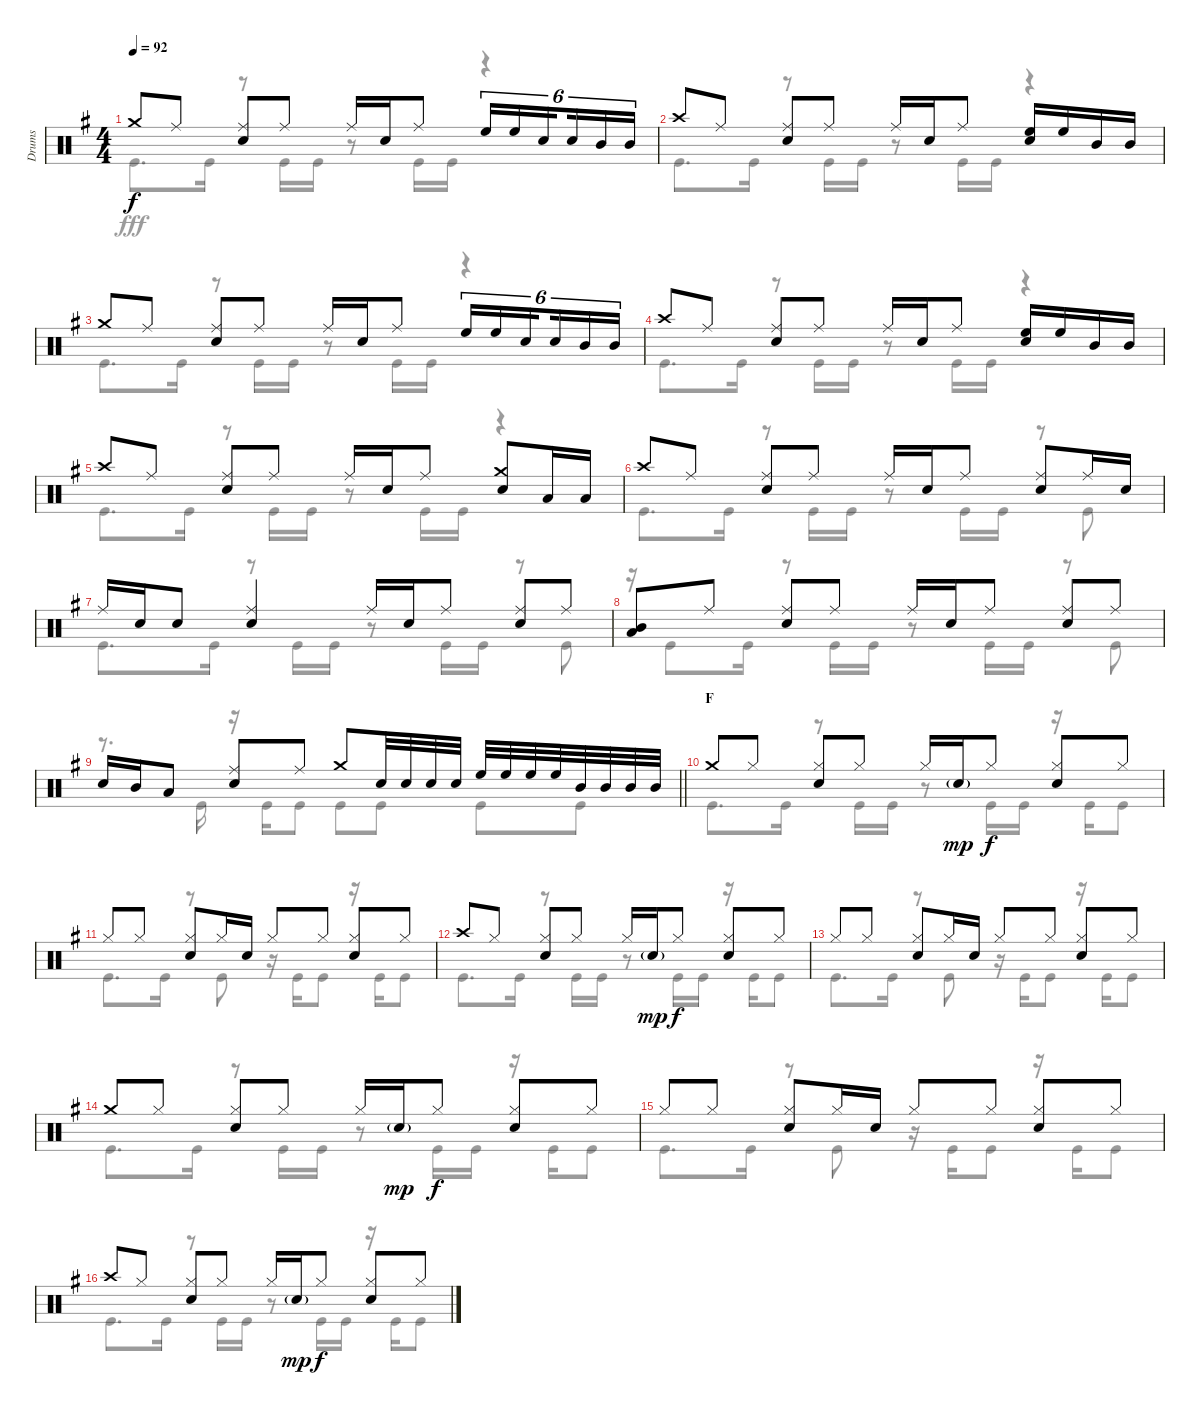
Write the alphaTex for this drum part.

\track ("Drums" "Drums") {instrument percussion}
\staff {score}
\articulation defaults
\voice
\ts (4 4)
\tempo 92
\clef neutral
\ks g "Crash medium (hit)".8{dy f} "Ride (middle)".8
("Snare (hit) 2" "Ride (middle)").8 "Ride (middle)".8 "Ride (middle)".16 "Snare (hit) 2".16 "Ride (middle)".8 "High Floor Tom (hit)".16{tu (6 4)} "High Floor Tom (hit)".16{tu (6 4)} "Snare (hit) 2".16{tu (6 4) beam splitsecondary} "Snare (hit) 2".16{tu (6 4)} "Mid Tom (hit)".16{tu (6 4)} "Mid Tom (hit)".16{tu (6 4)} |
"Crash high (hit)".8 "Ride (middle)".8 ("Ride (middle)" "Snare (hit) 2").8 "Ride (middle)".8 "Ride (middle)".16 "Snare (hit) 2".16 "Ride (middle)".8 ("High Floor Tom (hit)" "Snare (hit) 2").16 "High Floor Tom (hit)".16 "Mid Tom (hit)".16 "Mid Tom (hit)".16 |
"Crash medium (hit)".8 "Ride (middle)".8 ("Snare (hit) 2" "Ride (middle)").8 "Ride (middle)".8 "Ride (middle)".16 "Snare (hit) 2".16 "Ride (middle)".8 "High Floor Tom (hit)".16{tu (6 4)} "High Floor Tom (hit)".16{tu (6 4)} "Snare (hit) 2".16{tu (6 4) beam splitsecondary} "Snare (hit) 2".16{tu (6 4)} "Mid Tom (hit)".16{tu (6 4)} "Mid Tom (hit)".16{tu (6 4)} |
"Crash high (hit)".8 "Ride (middle)".8 ("Snare (hit) 2" "Ride (middle)").8 "Ride (middle)".8 "Ride (middle)".16 "Snare (hit) 2".16 "Ride (middle)".8 ("High Floor Tom (hit)" "Snare (hit) 2").16 "High Floor Tom (hit)".16 "Mid Tom (hit)".16 "Mid Tom (hit)".16 |
"Crash high (hit)".8 "Ride (middle)".8 ("Snare (hit) 2" "Ride (middle)").8 "Ride (middle)".8 "Ride (middle)".16 "Snare (hit) 2".16 "Ride (middle)".8 ("Crash medium (hit)" "Snare (hit) 2").8 "Low Tom (hit)".16 "Low Tom (hit)".16 |
"Crash high (hit)".8 "Ride (middle)".8 ("Ride (middle)" "Snare (hit) 2").8 "Ride (middle)".8 "Ride (middle)".16 "Snare (hit) 2".16 "Ride (middle)".8 ("Ride (middle)" "Snare (hit) 2").8 "Ride (middle)".16 "Snare (hit) 2".16 |
"Ride (middle)".16 "Snare (hit) 2".16 "Snare (hit) 2".8 ("Ride (middle)" "Snare (hit) 2").4 "Ride (middle)".16 "Snare (hit) 2".16 "Ride (middle)".8 ("Ride (middle)" "Snare (hit) 2").8 "Ride (middle)".8 |
("Mid Tom (hit)" "Low Tom (hit)").8 "Ride (middle)".8 ("Ride (middle)" "Snare (hit) 2").8 "Ride (middle)".8 "Ride (middle)".16 "Snare (hit) 2".16 "Ride (middle)".8 ("Ride (middle)" "Snare (hit) 2").8 "Ride (middle)".8 |
\barLineRight lightlight "Snare (hit) 2".16 "Mid Tom (hit)".16 "Low Tom (hit)".8
("Snare (hit) 2" "Ride (middle)").8 "Ride (middle)".8 "Crash medium (hit)".8 "Snare (hit) 2".32 "Snare (hit) 2".32 "Snare (hit) 2".32 "Snare (hit) 2".32 "High Floor Tom (hit)".32 "High Floor Tom (hit)".32 "High Floor Tom (hit)".32 "High Floor Tom (hit)".32 "Mid Tom (hit)".32 "Mid Tom (hit)".32 "Mid Tom (hit)".32 "Mid Tom (hit)".32 |
\section ("" "F")
"Crash medium (hit)".8 "Hi-Hat (closed)".8 ("Hi-Hat (closed)" "Snare (hit) 2").8 "Hi-Hat (closed)".8 "Hi-Hat (closed)".16 "Snare (hit) 2"{g}.16{dy mp} "Hi-Hat (closed)".8{dy f} ("Hi-Hat (closed)" "Snare (hit) 2").8 "Hi-Hat (closed)".8 |
"Hi-Hat (closed)".8 "Hi-Hat (closed)".8 ("Hi-Hat (closed)" "Snare (hit) 2").8 "Hi-Hat (closed)".16 "Snare (hit) 2".16 "Hi-Hat (closed)".8 "Hi-Hat (closed)".8 ("Hi-Hat (closed)" "Snare (hit) 2").8 "Hi-Hat (closed)".8 |
"Crash high (hit)".8 "Hi-Hat (closed)".8 ("Hi-Hat (closed)" "Snare (hit) 2").8 "Hi-Hat (closed)".8 "Hi-Hat (closed)".16 "Snare (hit) 2"{g}.16{dy mp} "Hi-Hat (closed)".8{dy f} ("Hi-Hat (closed)" "Snare (hit) 2").8 "Hi-Hat (closed)".8 |
"Hi-Hat (closed)".8 "Hi-Hat (closed)".8 ("Hi-Hat (closed)" "Snare (hit) 2").8 "Hi-Hat (closed)".16 "Snare (hit) 2".16 "Hi-Hat (closed)".8 "Hi-Hat (closed)".8 ("Hi-Hat (closed)" "Snare (hit) 2").8 "Hi-Hat (closed)".8 |
"Crash medium (hit)".8 "Hi-Hat (closed)".8 ("Hi-Hat (closed)" "Snare (hit) 2").8 "Hi-Hat (closed)".8 "Hi-Hat (closed)".16 "Snare (hit) 2"{g}.16{dy mp} "Hi-Hat (closed)".8{dy f} ("Hi-Hat (closed)" "Snare (hit) 2").8 "Hi-Hat (closed)".8 |
"Hi-Hat (closed)".8 "Hi-Hat (closed)".8 ("Hi-Hat (closed)" "Snare (hit) 2").8 "Hi-Hat (closed)".16 "Snare (hit) 2".16 "Hi-Hat (closed)".8 "Hi-Hat (closed)".8 ("Hi-Hat (closed)" "Snare (hit) 2").8 "Hi-Hat (closed)".8 |
"Crash high (hit)".8 "Hi-Hat (closed)".8 ("Hi-Hat (closed)" "Snare (hit) 2").8 "Hi-Hat (closed)".8 "Hi-Hat (closed)".16 "Snare (hit) 2"{g}.16{dy mp} "Hi-Hat (closed)".8{dy f} ("Hi-Hat (closed)" "Snare (hit) 2").8 "Hi-Hat (closed)".8
\voice
\clef neutral
\ottava regular
\simile none
\ks g "Kick (hit)".8{d dy fff} "Kick (hit)".16
r.8 "Kick (hit)".16 "Kick (hit)".16 r.8 "Kick (hit)".16 "Kick (hit)".16 r.4 |
"Kick (hit)".8{d} "Kick (hit)".16 r.8 "Kick (hit)".16 "Kick (hit)".16 r.8 "Kick (hit)".16 "Kick (hit)".16 r.4 |
"Kick (hit)".8{d} "Kick (hit)".16 r.8 "Kick (hit)".16 "Kick (hit)".16 r.8 "Kick (hit)".16 "Kick (hit)".16 r.4 |
"Kick (hit)".8{d} "Kick (hit)".16 r.8 "Kick (hit)".16 "Kick (hit)".16 r.8 "Kick (hit)".16 "Kick (hit)".16 r.4 |
"Kick (hit)".8{d} "Kick (hit)".16 r.8 "Kick (hit)".16 "Kick (hit)".16 r.8 "Kick (hit)".16 "Kick (hit)".16 r.4 |
"Kick (hit)".8{d} "Kick (hit)".16 r.8 "Kick (hit)".16 "Kick (hit)".16 r.8 "Kick (hit)".16 "Kick (hit)".16 r.8 "Kick (hit)".8 |
"Kick (hit)".8{d} "Kick (hit)".16 r.8 "Kick (hit)".16 "Kick (hit)".16 r.8 "Kick (hit)".16 "Kick (hit)".16 r.8 "Kick (hit)".8 |
r.16 "Kick (hit)".8 "Kick (hit)".16 r.8 "Kick (hit)".16 "Kick (hit)".16 r.8 "Kick (hit)".16 "Kick (hit)".16 r.8 "Kick (hit)".8 |
\barLineRight lightlight
r.8{d} "Kick (hit)".16 r.16 "Kick (hit)".16 "Kick (hit)".8 "Kick (hit)".8 "Kick (hit)".8 "Kick (hit)".8 "Kick (hit)".8 |
"Kick (hit)".8{d} "Kick (hit)".16 r.8 "Kick (hit)".16 "Kick (hit)".16 r.8 "Kick (hit)".16 "Kick (hit)".16 r.16 "Kick (hit)".16 "Kick (hit)".8 |
"Kick (hit)".8{d} "Kick (hit)".16 r.8 "Kick (hit)".8 r.16 "Kick (hit)".16 "Kick (hit)".8 r.16 "Kick (hit)".16 "Kick (hit)".8 |
"Kick (hit)".8{d} "Kick (hit)".16 r.8 "Kick (hit)".16 "Kick (hit)".16 r.8 "Kick (hit)".16 "Kick (hit)".16 r.16 "Kick (hit)".16 "Kick (hit)".8 |
"Kick (hit)".8{d} "Kick (hit)".16 r.8 "Kick (hit)".8 r.16 "Kick (hit)".16 "Kick (hit)".8 r.16 "Kick (hit)".16 "Kick (hit)".8 |
"Kick (hit)".8{d} "Kick (hit)".16 r.8 "Kick (hit)".16 "Kick (hit)".16 r.8 "Kick (hit)".16 "Kick (hit)".16 r.16 "Kick (hit)".16 "Kick (hit)".8 |
"Kick (hit)".8{d} "Kick (hit)".16 r.8 "Kick (hit)".8 r.16 "Kick (hit)".16 "Kick (hit)".8 r.16 "Kick (hit)".16 "Kick (hit)".8 |
"Kick (hit)".8{d} "Kick (hit)".16 r.8 "Kick (hit)".16 "Kick (hit)".16 r.8 "Kick (hit)".16 "Kick (hit)".16 r.16 "Kick (hit)".16 "Kick (hit)".8
